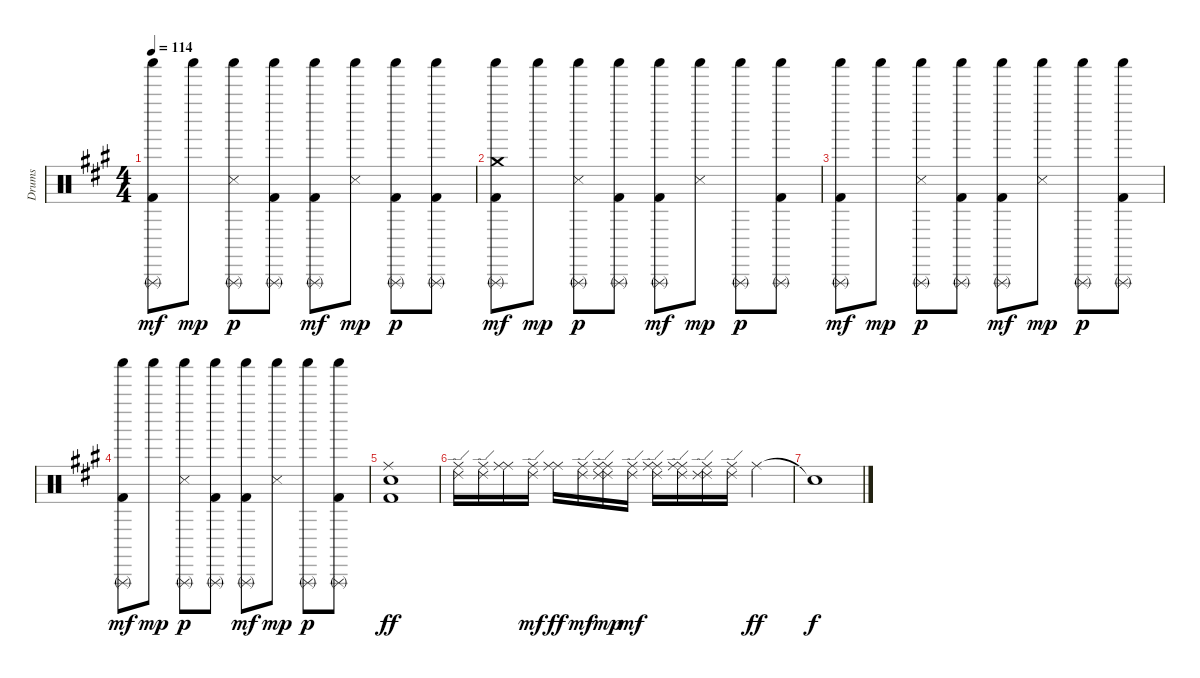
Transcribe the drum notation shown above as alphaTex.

\track ("Drums" "Drums") {instrument percussion}
\staff {score}
\articulation defaults
\ts (4 4)
\tempo 114
\clef neutral
\ks a
("Kick (hit) 2" "Triangle (rnute)" "Shaker (hit)").8{dy mf} "Shaker (hit)".8{dy mp} ("Snare (side stick) 3" "Triangle (rnute)" "Shaker (hit)").8{dy p} ("Kick (hit) 2" "Triangle (rnute)" "Shaker (hit)").8 ("Kick (hit) 2" "Triangle (rnute)" "Shaker (hit)").8{dy mf} ("Snare (side stick) 3" "Shaker (hit)").8{dy mp} ("Kick (hit) 2" "Triangle (rnute)" "Shaker (hit)").8{dy p} ("Kick (hit) 2" "Triangle (rnute)" "Shaker (hit)").8 |
("Kick (hit) 2" "Crash medium (hit)" "Triangle (rnute)" "Shaker (hit)").8{dy mf} "Shaker (hit)".8{dy mp} ("Snare (side stick) 3" "Triangle (rnute)" "Shaker (hit)").8{dy p} ("Kick (hit) 2" "Triangle (rnute)" "Shaker (hit)").8 ("Kick (hit) 2" "Triangle (rnute)" "Shaker (hit)").8{dy mf} ("Snare (side stick) 3" "Shaker (hit)").8{dy mp} ("Triangle (rnute)" "Shaker (hit)").8{dy p} ("Kick (hit) 2" "Triangle (rnute)" "Shaker (hit)").8 |
("Kick (hit) 2" "Triangle (rnute)" "Shaker (hit)").8{dy mf} "Shaker (hit)".8{dy mp} ("Snare (side stick) 3" "Triangle (rnute)" "Shaker (hit)").8{dy p} ("Kick (hit) 2" "Triangle (rnute)" "Shaker (hit)").8 ("Kick (hit) 2" "Triangle (rnute)" "Shaker (hit)").8{dy mf} ("Snare (side stick) 3" "Shaker (hit)").8{dy mp} ("Triangle (rnute)" "Shaker (hit)").8{dy p} ("Kick (hit) 2" "Triangle (rnute)" "Shaker (hit)").8 |
("Kick (hit) 2" "Triangle (rnute)" "Shaker (hit)").8{dy mf} "Shaker (hit)".8{dy mp} ("Snare (side stick) 3" "Triangle (rnute)" "Shaker (hit)").8{dy p} ("Kick (hit) 2" "Triangle (rnute)" "Shaker (hit)").8 ("Kick (hit) 2" "Triangle (rnute)" "Shaker (hit)").8{dy mf} ("Snare (side stick) 3" "Shaker (hit)").8{dy mp} ("Triangle (rnute)" "Shaker (hit)").8{dy p} ("Kick (hit) 2" "Triangle (rnute)" "Shaker (hit)").8 |
("Kick (hit) 2" "Electric Snare (hit)" "Ride (middle)").1{dy ff} |
("Ride (middle)" "Ride (edge) 2").16 ("Ride (middle)" "Ride (edge) 2").16 ("Ride (middle)" "Ride (middle)").16 ("Ride (middle)" "Ride (edge) 2").16{dy mf} ("Ride (middle)" "Ride (middle)").16{dy ff} ("Ride (middle)" "Ride (edge) 2").16{dy mf} ("Ride (middle)" "Ride (middle)" "Ride (edge) 2" "Ride (edge) 2").16{dy mp} ("Ride (middle)" "Ride (edge) 2").16{dy mf} ("Ride (middle)" "Ride (middle)" "Ride (edge) 2").16 ("Ride (middle)" "Ride (middle)" "Ride (edge) 2").16 ("Ride (middle)" "Ride (edge) 2" "Ride (edge) 2").16 ("Ride (middle)" "Ride (edge) 2").16 "Ride (middle)".4{dy ff} |
"Snare (hit)"{t}.1{dy f}
